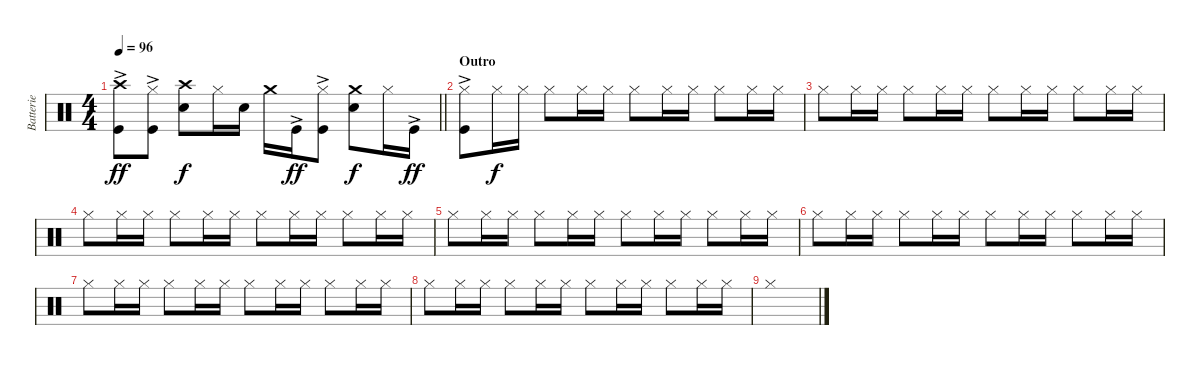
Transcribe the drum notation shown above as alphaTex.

\track ("Batterie" "Batterie") {instrument percussion}
\staff {score}
\articulation defaults
\ts (4 4)
\tempo 96
\clef neutral
\barLineRight lightlight
\ks c
("Crash high (hit)" "Kick (hit)"{ac}).8{dy ff} ("Hi-Hat (closed)" "Kick (hit)"{ac}).8 ("Crash high (hit)" "Snare (hit) 2").8{dy f} "Hi-Hat (closed)".16 "Snare (hit) 2".16 "Crash medium (hit)".16 "Kick (hit)"{ac}.16{dy ff} ("Hi-Hat (closed)" "Kick (hit)"{ac}).8 ("Crash medium (hit)" "Snare (hit) 2").8{dy f} "Hi-Hat (closed)".16 "Kick (hit)"{ac}.16{dy ff} |
\section ("" "Outro")
("Hi-Hat (closed)" "Kick (hit)"{ac}).8 "Hi-Hat (closed)".16{dy f} "Hi-Hat (closed)".16 "Hi-Hat (closed)".8 "Hi-Hat (closed)".16 "Hi-Hat (closed)".16 "Hi-Hat (closed)".8 "Hi-Hat (closed)".16 "Hi-Hat (closed)".16 "Hi-Hat (closed)".8 "Hi-Hat (closed)".16 "Hi-Hat (closed)".16 |
"Hi-Hat (closed)".8 "Hi-Hat (closed)".16 "Hi-Hat (closed)".16 "Hi-Hat (closed)".8 "Hi-Hat (closed)".16 "Hi-Hat (closed)".16 "Hi-Hat (closed)".8 "Hi-Hat (closed)".16 "Hi-Hat (closed)".16 "Hi-Hat (closed)".8 "Hi-Hat (closed)".16 "Hi-Hat (closed)".16 |
"Hi-Hat (closed)".8 "Hi-Hat (closed)".16 "Hi-Hat (closed)".16 "Hi-Hat (closed)".8 "Hi-Hat (closed)".16 "Hi-Hat (closed)".16 "Hi-Hat (closed)".8 "Hi-Hat (closed)".16 "Hi-Hat (closed)".16 "Hi-Hat (closed)".8 "Hi-Hat (closed)".16 "Hi-Hat (closed)".16 |
"Hi-Hat (closed)".8 "Hi-Hat (closed)".16 "Hi-Hat (closed)".16 "Hi-Hat (closed)".8 "Hi-Hat (closed)".16 "Hi-Hat (closed)".16 "Hi-Hat (closed)".8 "Hi-Hat (closed)".16 "Hi-Hat (closed)".16 "Hi-Hat (closed)".8 "Hi-Hat (closed)".16 "Hi-Hat (closed)".16 |
"Hi-Hat (closed)".8 "Hi-Hat (closed)".16 "Hi-Hat (closed)".16 "Hi-Hat (closed)".8 "Hi-Hat (closed)".16 "Hi-Hat (closed)".16 "Hi-Hat (closed)".8 "Hi-Hat (closed)".16 "Hi-Hat (closed)".16 "Hi-Hat (closed)".8 "Hi-Hat (closed)".16 "Hi-Hat (closed)".16 |
"Hi-Hat (closed)".8 "Hi-Hat (closed)".16 "Hi-Hat (closed)".16 "Hi-Hat (closed)".8 "Hi-Hat (closed)".16 "Hi-Hat (closed)".16 "Hi-Hat (closed)".8 "Hi-Hat (closed)".16 "Hi-Hat (closed)".16 "Hi-Hat (closed)".8 "Hi-Hat (closed)".16 "Hi-Hat (closed)".16 |
"Hi-Hat (closed)".8 "Hi-Hat (closed)".16 "Hi-Hat (closed)".16 "Hi-Hat (closed)".8 "Hi-Hat (closed)".16 "Hi-Hat (closed)".16 "Hi-Hat (closed)".8 "Hi-Hat (closed)".16 "Hi-Hat (closed)".16 "Hi-Hat (closed)".8 "Hi-Hat (closed)".16 "Hi-Hat (closed)".16 |
"Hi-Hat (closed)".1
